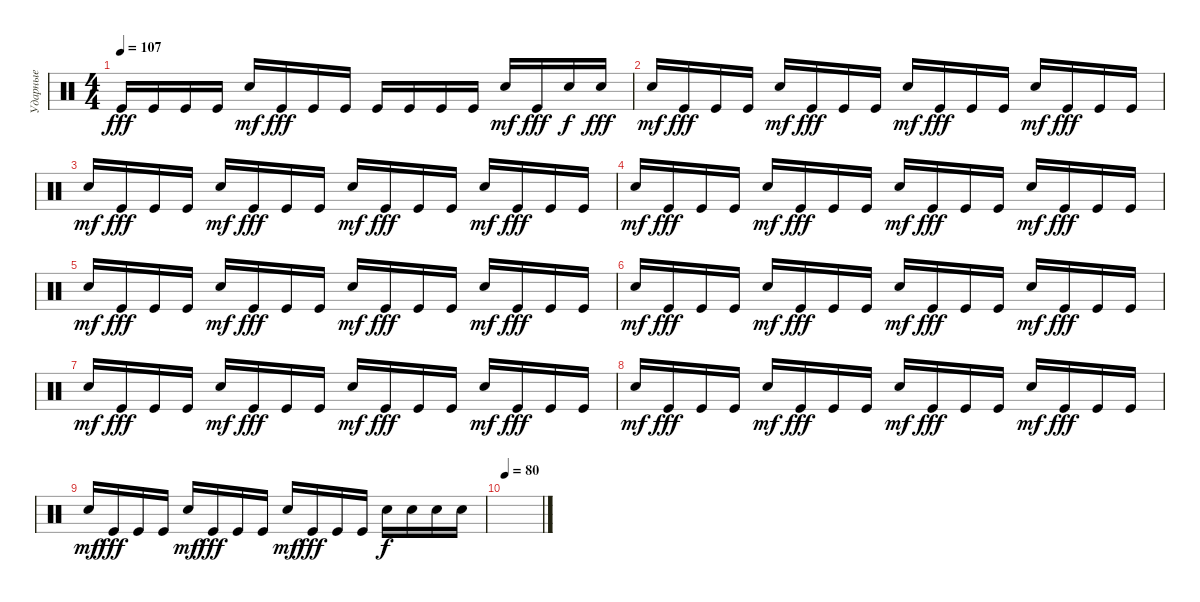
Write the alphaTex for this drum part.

\track ("Ударные" "Ударные") {instrument percussion}
\staff {score}
\articulation defaults
\ts (4 4)
\tempo 107
\clef neutral
\ks c "Kick (hit)".16{dy fff} "Kick (hit)".16 "Kick (hit)".16 "Kick (hit)".16 "Electric Snare (hit)".16{dy mf} "Kick (hit)".16{dy fff} "Kick (hit)".16 "Kick (hit)".16 "Kick (hit)".16 "Kick (hit)".16 "Kick (hit)".16 "Kick (hit)".16 "Electric Snare (hit)".16{dy mf} "Kick (hit)".16{dy fff} "Electric Snare (hit)".16{dy f} "Electric Snare (hit)".16{dy fff}
|
"Electric Snare (hit)".16{dy mf} "Kick (hit)".16{dy fff} "Kick (hit)".16 "Kick (hit)".16 "Electric Snare (hit)".16{dy mf} "Kick (hit)".16{dy fff} "Kick (hit)".16 "Kick (hit)".16 "Electric Snare (hit)".16{dy mf} "Kick (hit)".16{dy fff} "Kick (hit)".16 "Kick (hit)".16 "Electric Snare (hit)".16{dy mf} "Kick (hit)".16{dy fff} "Kick (hit)".16 "Kick (hit)".16 |
"Electric Snare (hit)".16{dy mf} "Kick (hit)".16{dy fff} "Kick (hit)".16 "Kick (hit)".16 "Electric Snare (hit)".16{dy mf} "Kick (hit)".16{dy fff} "Kick (hit)".16 "Kick (hit)".16 "Electric Snare (hit)".16{dy mf} "Kick (hit)".16{dy fff} "Kick (hit)".16 "Kick (hit)".16 "Electric Snare (hit)".16{dy mf} "Kick (hit)".16{dy fff} "Kick (hit)".16 "Kick (hit)".16 |
"Electric Snare (hit)".16{dy mf} "Kick (hit)".16{dy fff} "Kick (hit)".16 "Kick (hit)".16 "Electric Snare (hit)".16{dy mf} "Kick (hit)".16{dy fff} "Kick (hit)".16 "Kick (hit)".16 "Electric Snare (hit)".16{dy mf} "Kick (hit)".16{dy fff} "Kick (hit)".16 "Kick (hit)".16 "Electric Snare (hit)".16{dy mf} "Kick (hit)".16{dy fff} "Kick (hit)".16 "Kick (hit)".16 |
"Electric Snare (hit)".16{dy mf} "Kick (hit)".16{dy fff} "Kick (hit)".16 "Kick (hit)".16 "Electric Snare (hit)".16{dy mf} "Kick (hit)".16{dy fff} "Kick (hit)".16 "Kick (hit)".16 "Electric Snare (hit)".16{dy mf} "Kick (hit)".16{dy fff} "Kick (hit)".16 "Kick (hit)".16 "Electric Snare (hit)".16{dy mf} "Kick (hit)".16{dy fff} "Kick (hit)".16 "Kick (hit)".16 |
"Electric Snare (hit)".16{dy mf} "Kick (hit)".16{dy fff} "Kick (hit)".16 "Kick (hit)".16 "Electric Snare (hit)".16{dy mf} "Kick (hit)".16{dy fff} "Kick (hit)".16 "Kick (hit)".16 "Electric Snare (hit)".16{dy mf} "Kick (hit)".16{dy fff} "Kick (hit)".16 "Kick (hit)".16 "Electric Snare (hit)".16{dy mf} "Kick (hit)".16{dy fff} "Kick (hit)".16 "Kick (hit)".16 |
"Electric Snare (hit)".16{dy mf} "Kick (hit)".16{dy fff} "Kick (hit)".16 "Kick (hit)".16 "Electric Snare (hit)".16{dy mf} "Kick (hit)".16{dy fff} "Kick (hit)".16 "Kick (hit)".16 "Electric Snare (hit)".16{dy mf} "Kick (hit)".16{dy fff} "Kick (hit)".16 "Kick (hit)".16 "Electric Snare (hit)".16{dy mf} "Kick (hit)".16{dy fff} "Kick (hit)".16 "Kick (hit)".16 |
"Electric Snare (hit)".16{dy mf} "Kick (hit)".16{dy fff} "Kick (hit)".16 "Kick (hit)".16 "Electric Snare (hit)".16{dy mf} "Kick (hit)".16{dy fff} "Kick (hit)".16 "Kick (hit)".16 "Electric Snare (hit)".16{dy mf} "Kick (hit)".16{dy fff} "Kick (hit)".16 "Kick (hit)".16 "Electric Snare (hit)".16{dy mf} "Kick (hit)".16{dy fff} "Kick (hit)".16 "Kick (hit)".16 |
"Electric Snare (hit)".16{dy mf} "Kick (hit)".16{dy fff} "Kick (hit)".16 "Kick (hit)".16 "Electric Snare (hit)".16{dy mf} "Kick (hit)".16{dy fff} "Kick (hit)".16 "Kick (hit)".16 "Electric Snare (hit)".16{dy mf} "Kick (hit)".16{dy fff} "Kick (hit)".16 "Kick (hit)".16 "Electric Snare (hit)".16{dy f} "Electric Snare (hit)".16 "Electric Snare (hit)".16 "Electric Snare (hit)".16 |
\tempo 95
\tempo 80
